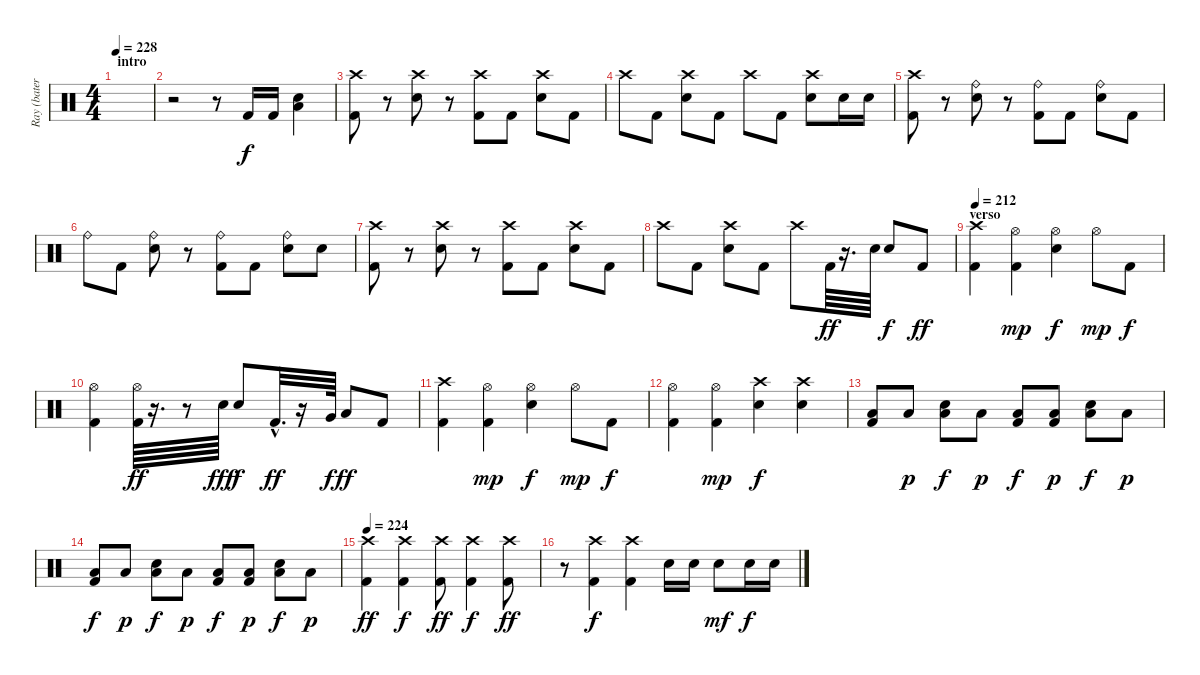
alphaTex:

\track ("Ray (batería)" "Ray (bater") {instrument percussion}
\staff {score}
\articulation defaults
\ts (4 4)
\section ("" "intro")
\tempo 228
\clef neutral
\ks c
|
r.2 r.8 "Kick (hit) 2".16 "Kick (hit) 2".16 ("Snare (hit) 2" "Low Tom (hit)").4 |
("Crash high (hit)" "Kick (hit) 2").8 r.8 ("Crash high (hit)" "Snare (hit) 2").8 r.8 ("Crash high (hit)" "Kick (hit) 2").8 "Kick (hit) 2".8 ("Crash high (hit)" "Snare (hit) 2").8 "Kick (hit) 2".8 |
"Crash high (hit)".8 "Kick (hit) 2".8 ("Crash high (hit)" "Snare (hit) 2").8 "Kick (hit) 2".8 "Crash high (hit)".8 "Kick (hit) 2".8 ("Crash high (hit)" "Snare (hit) 2").8 "Snare (hit) 2".16 "Snare (hit) 2".16 |
("Crash high (hit)" "Kick (hit) 2").8 r.8 ("Ride (bell)" "Snare (hit) 2").8 r.8 ("Ride (bell)" "Kick (hit) 2").8 "Kick (hit) 2".8 ("Ride (bell)" "Snare (hit) 2").8 "Kick (hit) 2".8 |
"Ride (bell)".8 "Kick (hit) 2".8 ("Ride (bell)" "Snare (hit) 2").8 r.8 ("Ride (bell)" "Kick (hit) 2").8 "Kick (hit) 2".8 ("Ride (bell)" "Snare (hit) 2").8 "Snare (hit) 2".8 |
("Crash high (hit)" "Kick (hit) 2").8 r.8 ("Crash high (hit)" "Snare (hit) 2").8 r.8 ("Crash high (hit)" "Kick (hit) 2").8 "Kick (hit) 2".8 ("Crash high (hit)" "Snare (hit) 2").8 "Kick (hit) 2".8 |
"Crash high (hit)".8 "Kick (hit) 2".8 ("Crash high (hit)" "Snare (hit) 2").8 "Kick (hit) 2".8 "Crash high (hit)".8 "Kick (hit) 2".64{dy ff} r.16{d} "Snare (hit) 2".64 "Snare (hit) 2".8{dy f} "Kick (hit) 2".8{dy ff} |
\section ("" "verso")
\tempo 212
("Crash high (hit)" "Kick (hit) 2").4 ("Hi-Hat (open)" "Kick (hit) 2").4{dy mp} ("Hi-Hat (open)" "Snare (hit) 2").4{dy f} "Hi-Hat (open)".8{dy mp} "Kick (hit) 2".8{dy f} |
("Hi-Hat (open)" "Kick (hit) 2").4 ("Hi-Hat (open)" "Kick (hit) 2").64{dy ff} r.16{d} r.8 "Snare (hit) 2".64{dy fff} "Snare (hit) 2".8{dy f} "Kick (hit) 2"{hac}.32{d dy ff} r.16 "Very Low Tom (hit)".64{dy f} "Low Tom (hit)".8{dy ff} "Kick (hit) 2".8 |
("Crash high (hit)" "Kick (hit) 2").4 ("Hi-Hat (open)" "Kick (hit) 2").4{dy mp} ("Hi-Hat (open)" "Snare (hit) 2").4{dy f} "Hi-Hat (open)".8{dy mp} "Kick (hit) 2".8{dy f} |
("Hi-Hat (open)" "Kick (hit) 2").4 ("Hi-Hat (open)" "Kick (hit) 2").4{dy mp} ("Crash high (hit)" "Snare (hit) 2").4{dy f} ("Crash high (hit)" "Snare (hit) 2").4 |
("Low Tom (hit)" "Kick (hit) 2").8 "Low Tom (hit)".8{dy p} ("Snare (hit) 2" "Low Tom (hit)").8{dy f} "Low Tom (hit)".8{dy p} ("Low Tom (hit)" "Kick (hit) 2").8{dy f} ("Low Tom (hit)" "Kick (hit) 2").8{dy p} ("Snare (hit) 2" "Low Tom (hit)").8{dy f} "Low Tom (hit)".8{dy p} |
("Low Tom (hit)" "Kick (hit) 2").8{dy f} "Low Tom (hit)".8{dy p} ("Snare (hit) 2" "Low Tom (hit)").8{dy f} "Low Tom (hit)".8{dy p} ("Low Tom (hit)" "Kick (hit) 2").8{dy f} ("Low Tom (hit)" "Kick (hit) 2").8{dy p} ("Snare (hit) 2" "Low Tom (hit)").8{dy f} "Low Tom (hit)".8{dy p} |
\tempo 224
("Crash high (hit)" "Kick (hit) 2").4{dy ff} ("Crash high (hit)" "Kick (hit) 2").4{dy f} ("Crash high (hit)" "Kick (hit) 2").8{dy ff} ("Crash high (hit)" "Kick (hit) 2").4{dy f} ("Crash high (hit)" "Kick (hit) 2").8{dy ff} |
r.8 ("Crash high (hit)" "Kick (hit) 2").4{dy f} ("Crash high (hit)" "Kick (hit) 2").4 "Snare (hit) 2".16 "Snare (hit) 2".16 "Snare (hit) 2".8{dy mf} "Snare (hit) 2".16{dy f} "Snare (hit) 2".16
